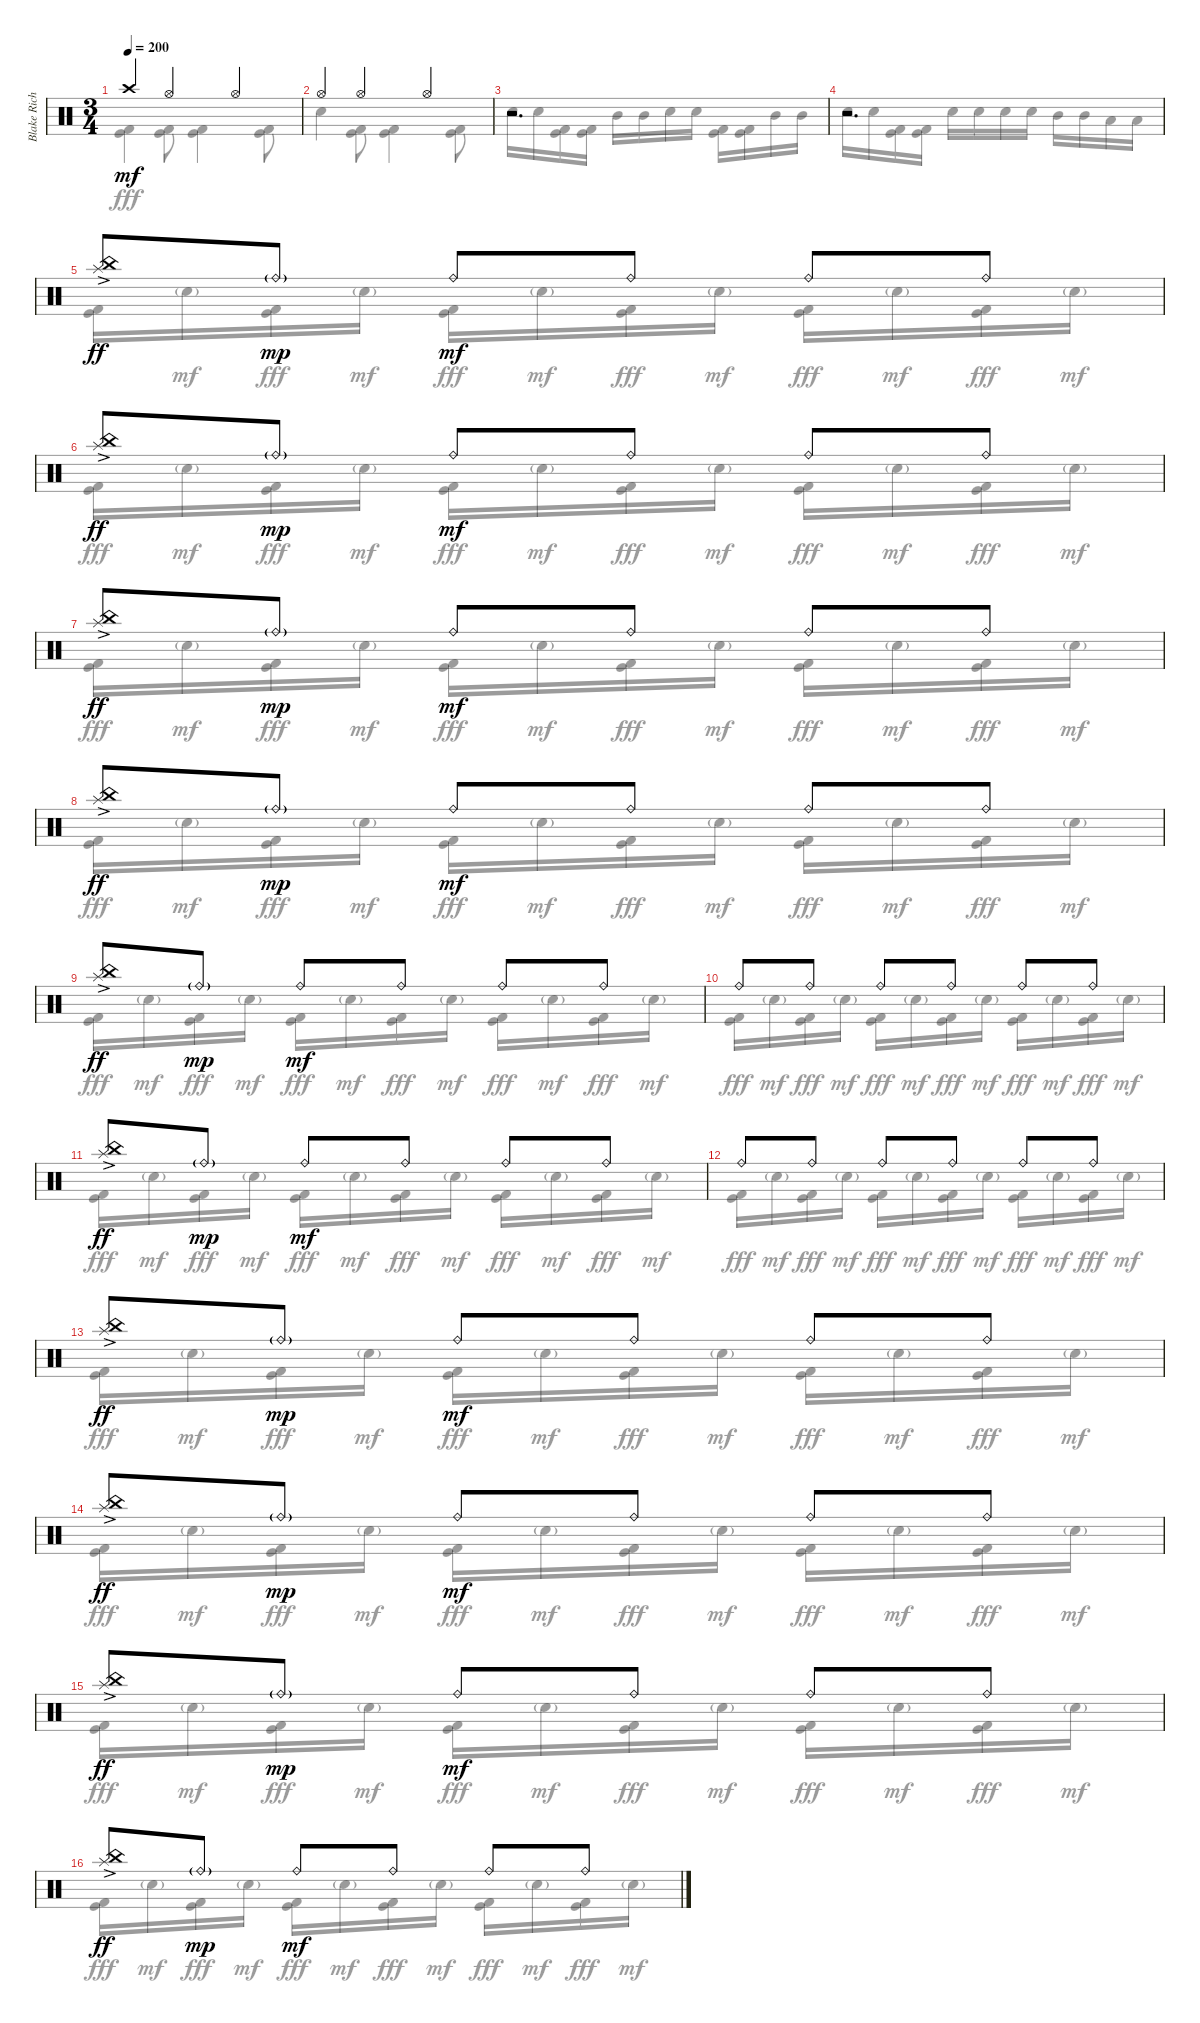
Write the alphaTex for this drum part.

\track ("Blake Richardson Drums" "Blake Rich") {instrument percussion}
\staff {score}
\articulation defaults
\voice
\ts (3 4)
\tempo 200
\clef neutral
\ks c "Crash high (hit)".4{dy mf} "Hi-Hat (open)".4 "Hi-Hat (open)".4
|
"Hi-Hat (open)".4 "Hi-Hat (open)".4 "Hi-Hat (open)".4 |
r.2{d} |
r.2{d} |
("China (hit)" "Splash (hit)"{ac}).8{dy ff} "Ride (bell)"{g}.8{dy mp} "Ride (bell)".8{dy mf} "Ride (bell)".8 "Ride (bell)".8 "Ride (bell)".8 |
("China (hit)" "Splash (hit)"{ac}).8{dy ff} "Ride (bell)"{g}.8{dy mp} "Ride (bell)".8{dy mf} "Ride (bell)".8 "Ride (bell)".8 "Ride (bell)".8 |
("China (hit)" "Splash (hit)"{ac}).8{dy ff} "Ride (bell)"{g}.8{dy mp} "Ride (bell)".8{dy mf} "Ride (bell)".8 "Ride (bell)".8 "Ride (bell)".8 |
("China (hit)" "Splash (hit)"{ac}).8{dy ff} "Ride (bell)"{g}.8{dy mp} "Ride (bell)".8{dy mf} "Ride (bell)".8 "Ride (bell)".8 "Ride (bell)".8 |
("China (hit)" "Splash (hit)"{ac}).8{dy ff} "Ride (bell)"{g}.8{dy mp} "Ride (bell)".8{dy mf} "Ride (bell)".8 "Ride (bell)".8 "Ride (bell)".8 |
"Ride (bell)".8 "Ride (bell)".8 "Ride (bell)".8 "Ride (bell)".8 "Ride (bell)".8 "Ride (bell)".8 |
("China (hit)" "Splash (hit)"{ac}).8{dy ff} "Ride (bell)"{g}.8{dy mp} "Ride (bell)".8{dy mf} "Ride (bell)".8 "Ride (bell)".8 "Ride (bell)".8 |
"Ride (bell)".8 "Ride (bell)".8 "Ride (bell)".8 "Ride (bell)".8 "Ride (bell)".8 "Ride (bell)".8 |
("China (hit)" "Splash (hit)"{ac}).8{dy ff} "Ride (bell)"{g}.8{dy mp} "Ride (bell)".8{dy mf} "Ride (bell)".8 "Ride (bell)".8 "Ride (bell)".8 |
("China (hit)" "Splash (hit)"{ac}).8{dy ff} "Ride (bell)"{g}.8{dy mp} "Ride (bell)".8{dy mf} "Ride (bell)".8 "Ride (bell)".8 "Ride (bell)".8 |
("China (hit)" "Splash (hit)"{ac}).8{dy ff} "Ride (bell)"{g}.8{dy mp} "Ride (bell)".8{dy mf} "Ride (bell)".8 "Ride (bell)".8 "Ride (bell)".8 |
("China (hit)" "Splash (hit)"{ac}).8{dy ff} "Ride (bell)"{g}.8{dy mp} "Ride (bell)".8{dy mf} "Ride (bell)".8 "Ride (bell)".8 "Ride (bell)".8
\voice
\clef neutral
\ottava regular
\simile none
\ks c
("Kick (hit)" "Kick (hit) 2").4{dy fff} ("Kick (hit)" "Kick (hit) 2").8 ("Kick (hit)" "Kick (hit) 2").4 ("Kick (hit)" "Kick (hit) 2").8 |
"Electric Snare (hit)".4 ("Kick (hit)" "Kick (hit) 2").8 ("Kick (hit)" "Kick (hit) 2").4 ("Kick (hit)" "Kick (hit) 2").8 |
"Electric Snare (hit)".16 "Electric Snare (hit)".16 ("Kick (hit)" "Kick (hit) 2").16 ("Kick (hit)" "Kick (hit) 2").16 "Mid Tom (hit)".16 "Mid Tom (hit)".16 "Electric Snare (hit)".16 "Electric Snare (hit)".16 ("Kick (hit)" "Kick (hit) 2").16 ("Kick (hit)" "Kick (hit) 2").16 "Mid Tom (hit)".16 "Mid Tom (hit)".16 |
"Electric Snare (hit)".16 "Electric Snare (hit)".16 ("Kick (hit)" "Kick (hit) 2").16 ("Kick (hit)" "Kick (hit) 2").16 "Electric Snare (hit)".16 "Electric Snare (hit)".16 "Electric Snare (hit)".16 "Electric Snare (hit)".16 "Mid Tom (hit)".16 "Mid Tom (hit)".16 "Low Tom (hit)".16 "Low Tom (hit)".16 |
("Kick (hit)" "Kick (hit) 2").16 "Electric Snare (hit)"{g}.16{dy mf} ("Kick (hit)" "Kick (hit) 2").16{dy fff} "Electric Snare (hit)"{g}.16{dy mf} ("Kick (hit)" "Kick (hit) 2").16{dy fff} "Electric Snare (hit)"{g}.16{dy mf} ("Kick (hit)" "Kick (hit) 2").16{dy fff} "Electric Snare (hit)"{g}.16{dy mf} ("Kick (hit)" "Kick (hit) 2").16{dy fff} "Electric Snare (hit)"{g}.16{dy mf} ("Kick (hit)" "Kick (hit) 2").16{dy fff} "Electric Snare (hit)"{g}.16{dy mf} |
("Kick (hit)" "Kick (hit) 2").16{dy fff} "Electric Snare (hit)"{g}.16{dy mf} ("Kick (hit)" "Kick (hit) 2").16{dy fff} "Electric Snare (hit)"{g}.16{dy mf} ("Kick (hit)" "Kick (hit) 2").16{dy fff} "Electric Snare (hit)"{g}.16{dy mf} ("Kick (hit)" "Kick (hit) 2").16{dy fff} "Electric Snare (hit)"{g}.16{dy mf} ("Kick (hit)" "Kick (hit) 2").16{dy fff} "Electric Snare (hit)"{g}.16{dy mf} ("Kick (hit)" "Kick (hit) 2").16{dy fff} "Electric Snare (hit)"{g}.16{dy mf} |
("Kick (hit)" "Kick (hit) 2").16{dy fff} "Electric Snare (hit)"{g}.16{dy mf} ("Kick (hit)" "Kick (hit) 2").16{dy fff} "Electric Snare (hit)"{g}.16{dy mf} ("Kick (hit)" "Kick (hit) 2").16{dy fff} "Electric Snare (hit)"{g}.16{dy mf} ("Kick (hit)" "Kick (hit) 2").16{dy fff} "Electric Snare (hit)"{g}.16{dy mf} ("Kick (hit)" "Kick (hit) 2").16{dy fff} "Electric Snare (hit)"{g}.16{dy mf} ("Kick (hit)" "Kick (hit) 2").16{dy fff} "Electric Snare (hit)"{g}.16{dy mf} |
("Kick (hit)" "Kick (hit) 2").16{dy fff} "Electric Snare (hit)"{g}.16{dy mf} ("Kick (hit)" "Kick (hit) 2").16{dy fff} "Electric Snare (hit)"{g}.16{dy mf} ("Kick (hit)" "Kick (hit) 2").16{dy fff} "Electric Snare (hit)"{g}.16{dy mf} ("Kick (hit)" "Kick (hit) 2").16{dy fff} "Electric Snare (hit)"{g}.16{dy mf} ("Kick (hit)" "Kick (hit) 2").16{dy fff} "Electric Snare (hit)"{g}.16{dy mf} ("Kick (hit)" "Kick (hit) 2").16{dy fff} "Electric Snare (hit)"{g}.16{dy mf} |
("Kick (hit)" "Kick (hit) 2").16{dy fff} "Electric Snare (hit)"{g}.16{dy mf} ("Kick (hit)" "Kick (hit) 2").16{dy fff} "Electric Snare (hit)"{g}.16{dy mf} ("Kick (hit)" "Kick (hit) 2").16{dy fff} "Electric Snare (hit)"{g}.16{dy mf} ("Kick (hit)" "Kick (hit) 2").16{dy fff} "Electric Snare (hit)"{g}.16{dy mf} ("Kick (hit)" "Kick (hit) 2").16{dy fff} "Electric Snare (hit)"{g}.16{dy mf} ("Kick (hit)" "Kick (hit) 2").16{dy fff} "Electric Snare (hit)"{g}.16{dy mf} |
("Kick (hit)" "Kick (hit) 2").16{dy fff} "Electric Snare (hit)"{g}.16{dy mf} ("Kick (hit)" "Kick (hit) 2").16{dy fff} "Electric Snare (hit)"{g}.16{dy mf} ("Kick (hit)" "Kick (hit) 2").16{dy fff} "Electric Snare (hit)"{g}.16{dy mf} ("Kick (hit)" "Kick (hit) 2").16{dy fff} "Electric Snare (hit)"{g}.16{dy mf} ("Kick (hit)" "Kick (hit) 2").16{dy fff} "Electric Snare (hit)"{g}.16{dy mf} ("Kick (hit)" "Kick (hit) 2").16{dy fff} "Electric Snare (hit)"{g}.16{dy mf} |
("Kick (hit)" "Kick (hit) 2").16{dy fff} "Electric Snare (hit)"{g}.16{dy mf} ("Kick (hit)" "Kick (hit) 2").16{dy fff} "Electric Snare (hit)"{g}.16{dy mf} ("Kick (hit)" "Kick (hit) 2").16{dy fff} "Electric Snare (hit)"{g}.16{dy mf} ("Kick (hit)" "Kick (hit) 2").16{dy fff} "Electric Snare (hit)"{g}.16{dy mf} ("Kick (hit)" "Kick (hit) 2").16{dy fff} "Electric Snare (hit)"{g}.16{dy mf} ("Kick (hit)" "Kick (hit) 2").16{dy fff} "Electric Snare (hit)"{g}.16{dy mf} |
("Kick (hit)" "Kick (hit) 2").16{dy fff} "Electric Snare (hit)"{g}.16{dy mf} ("Kick (hit)" "Kick (hit) 2").16{dy fff} "Electric Snare (hit)"{g}.16{dy mf} ("Kick (hit)" "Kick (hit) 2").16{dy fff} "Electric Snare (hit)"{g}.16{dy mf} ("Kick (hit)" "Kick (hit) 2").16{dy fff} "Electric Snare (hit)"{g}.16{dy mf} ("Kick (hit)" "Kick (hit) 2").16{dy fff} "Electric Snare (hit)"{g}.16{dy mf} ("Kick (hit)" "Kick (hit) 2").16{dy fff} "Electric Snare (hit)"{g}.16{dy mf} |
("Kick (hit)" "Kick (hit) 2").16{dy fff} "Electric Snare (hit)"{g}.16{dy mf} ("Kick (hit)" "Kick (hit) 2").16{dy fff} "Electric Snare (hit)"{g}.16{dy mf} ("Kick (hit)" "Kick (hit) 2").16{dy fff} "Electric Snare (hit)"{g}.16{dy mf} ("Kick (hit)" "Kick (hit) 2").16{dy fff} "Electric Snare (hit)"{g}.16{dy mf} ("Kick (hit)" "Kick (hit) 2").16{dy fff} "Electric Snare (hit)"{g}.16{dy mf} ("Kick (hit)" "Kick (hit) 2").16{dy fff} "Electric Snare (hit)"{g}.16{dy mf} |
("Kick (hit)" "Kick (hit) 2").16{dy fff} "Electric Snare (hit)"{g}.16{dy mf} ("Kick (hit)" "Kick (hit) 2").16{dy fff} "Electric Snare (hit)"{g}.16{dy mf} ("Kick (hit)" "Kick (hit) 2").16{dy fff} "Electric Snare (hit)"{g}.16{dy mf} ("Kick (hit)" "Kick (hit) 2").16{dy fff} "Electric Snare (hit)"{g}.16{dy mf} ("Kick (hit)" "Kick (hit) 2").16{dy fff} "Electric Snare (hit)"{g}.16{dy mf} ("Kick (hit)" "Kick (hit) 2").16{dy fff} "Electric Snare (hit)"{g}.16{dy mf} |
("Kick (hit)" "Kick (hit) 2").16{dy fff} "Electric Snare (hit)"{g}.16{dy mf} ("Kick (hit)" "Kick (hit) 2").16{dy fff} "Electric Snare (hit)"{g}.16{dy mf} ("Kick (hit)" "Kick (hit) 2").16{dy fff} "Electric Snare (hit)"{g}.16{dy mf} ("Kick (hit)" "Kick (hit) 2").16{dy fff} "Electric Snare (hit)"{g}.16{dy mf} ("Kick (hit)" "Kick (hit) 2").16{dy fff} "Electric Snare (hit)"{g}.16{dy mf} ("Kick (hit)" "Kick (hit) 2").16{dy fff} "Electric Snare (hit)"{g}.16{dy mf} |
("Kick (hit)" "Kick (hit) 2").16{dy fff} "Electric Snare (hit)"{g}.16{dy mf} ("Kick (hit)" "Kick (hit) 2").16{dy fff} "Electric Snare (hit)"{g}.16{dy mf} ("Kick (hit)" "Kick (hit) 2").16{dy fff} "Electric Snare (hit)"{g}.16{dy mf} ("Kick (hit)" "Kick (hit) 2").16{dy fff} "Electric Snare (hit)"{g}.16{dy mf} ("Kick (hit)" "Kick (hit) 2").16{dy fff} "Electric Snare (hit)"{g}.16{dy mf} ("Kick (hit)" "Kick (hit) 2").16{dy fff} "Electric Snare (hit)"{g}.16{dy mf}
